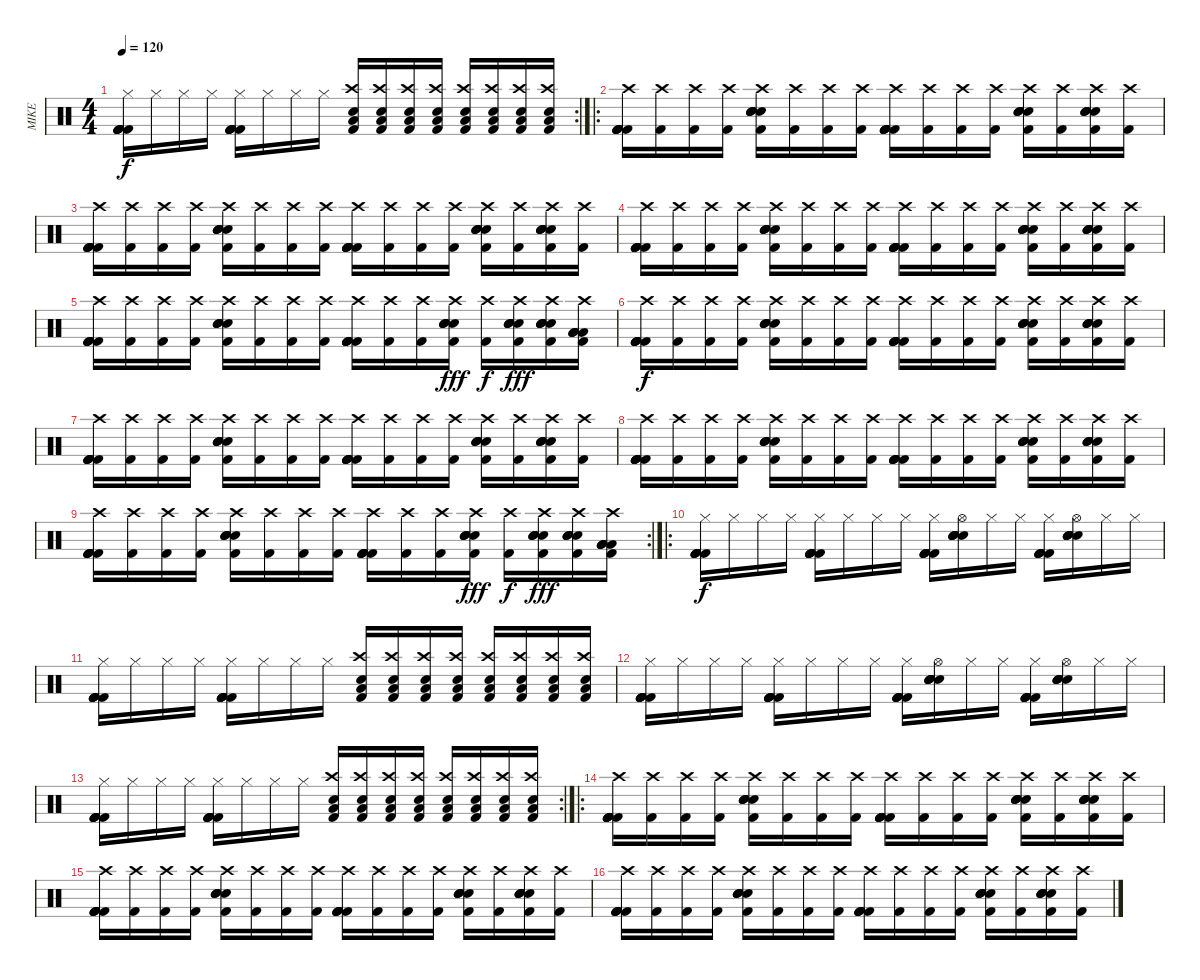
\track ("MIKE" "MIKE") {instrument percussion}
\staff {score}
\articulation defaults
\rc 2
\ts (4 4)
\tempo 120
\clef neutral
\ks c
("Kick (hit) 2" "Kick (hit) 2" "Kick (hit) 2" "Kick (hit) 2" "Kick (hit) 2" "Hi-Hat (closed)").16{dy f} "Hi-Hat (closed)".16 "Hi-Hat (closed)".16 "Hi-Hat (closed)".16 ("Kick (hit) 2" "Kick (hit) 2" "Kick (hit) 2" "Kick (hit) 2" "Kick (hit) 2" "Hi-Hat (closed)").16 "Hi-Hat (closed)".16 "Hi-Hat (closed)".16 "Hi-Hat (closed)".16 ("Crash high (hit)" "Low Floor Tom (hit)" "Electric Snare (hit)" "Kick (hit) 2").16 ("Crash high (hit)" "Low Floor Tom (hit)" "Electric Snare (hit)" "Kick (hit) 2").16 ("Crash high (hit)" "Low Floor Tom (hit)" "Electric Snare (hit)" "Kick (hit) 2").16 ("Crash high (hit)" "Low Floor Tom (hit)" "Electric Snare (hit)" "Kick (hit) 2").16 ("Crash high (hit)" "Low Floor Tom (hit)" "Electric Snare (hit)" "Kick (hit) 2").16 ("Crash high (hit)" "Low Floor Tom (hit)" "Electric Snare (hit)" "Kick (hit) 2").16 ("Crash high (hit)" "Low Floor Tom (hit)" "Electric Snare (hit)" "Kick (hit) 2").16 ("Crash high (hit)" "Low Floor Tom (hit)" "Electric Snare (hit)" "Kick (hit) 2").16 |
\ro
("Kick (hit) 2" "Kick (hit) 2" "Kick (hit) 2" "Kick (hit) 2" "Kick (hit) 2" "Crash high (hit)").16 ("Kick (hit) 2" "Crash high (hit)").16 ("Kick (hit) 2" "Crash high (hit)").16 ("Kick (hit) 2" "Crash high (hit)").16 ("Electric Snare (hit)" "Electric Snare (hit)" "Electric Snare (hit)" "Electric Snare (hit)" "Kick (hit) 2" "Crash high (hit)").16 ("Kick (hit) 2" "Crash high (hit)").16 ("Kick (hit) 2" "Crash high (hit)").16 ("Kick (hit) 2" "Crash high (hit)").16 ("Kick (hit) 2" "Kick (hit) 2" "Kick (hit) 2" "Kick (hit) 2" "Kick (hit) 2" "Crash high (hit)").16 ("Kick (hit) 2" "Crash high (hit)").16 ("Kick (hit) 2" "Crash high (hit)").16 ("Kick (hit) 2" "Crash high (hit)").16 ("Electric Snare (hit)" "Electric Snare (hit)" "Electric Snare (hit)" "Electric Snare (hit)" "Kick (hit) 2" "Crash high (hit)").16 ("Kick (hit) 2" "Crash high (hit)").16 ("Electric Snare (hit)" "Electric Snare (hit)" "Electric Snare (hit)" "Electric Snare (hit)" "Kick (hit) 2" "Crash high (hit)").16 ("Kick (hit) 2" "Crash high (hit)").16 |
("Kick (hit) 2" "Kick (hit) 2" "Kick (hit) 2" "Kick (hit) 2" "Kick (hit) 2" "Crash high (hit)").16 ("Kick (hit) 2" "Crash high (hit)").16 ("Kick (hit) 2" "Crash high (hit)").16 ("Kick (hit) 2" "Crash high (hit)").16 ("Electric Snare (hit)" "Electric Snare (hit)" "Electric Snare (hit)" "Electric Snare (hit)" "Kick (hit) 2" "Crash high (hit)").16 ("Kick (hit) 2" "Crash high (hit)").16 ("Kick (hit) 2" "Crash high (hit)").16 ("Kick (hit) 2" "Crash high (hit)").16 ("Kick (hit) 2" "Kick (hit) 2" "Kick (hit) 2" "Kick (hit) 2" "Kick (hit) 2" "Crash high (hit)").16 ("Kick (hit) 2" "Crash high (hit)").16 ("Kick (hit) 2" "Crash high (hit)").16 ("Kick (hit) 2" "Crash high (hit)").16 ("Electric Snare (hit)" "Electric Snare (hit)" "Electric Snare (hit)" "Electric Snare (hit)" "Kick (hit) 2" "Crash high (hit)").16 ("Kick (hit) 2" "Crash high (hit)").16 ("Electric Snare (hit)" "Electric Snare (hit)" "Electric Snare (hit)" "Electric Snare (hit)" "Kick (hit) 2" "Crash high (hit)").16 ("Kick (hit) 2" "Crash high (hit)").16 |
("Kick (hit) 2" "Kick (hit) 2" "Kick (hit) 2" "Kick (hit) 2" "Kick (hit) 2" "Crash high (hit)").16 ("Kick (hit) 2" "Crash high (hit)").16 ("Kick (hit) 2" "Crash high (hit)").16 ("Kick (hit) 2" "Crash high (hit)").16 ("Electric Snare (hit)" "Electric Snare (hit)" "Electric Snare (hit)" "Electric Snare (hit)" "Kick (hit) 2" "Crash high (hit)").16 ("Kick (hit) 2" "Crash high (hit)").16 ("Kick (hit) 2" "Crash high (hit)").16 ("Kick (hit) 2" "Crash high (hit)").16 ("Kick (hit) 2" "Kick (hit) 2" "Kick (hit) 2" "Kick (hit) 2" "Kick (hit) 2" "Crash high (hit)").16 ("Kick (hit) 2" "Crash high (hit)").16 ("Kick (hit) 2" "Crash high (hit)").16 ("Kick (hit) 2" "Crash high (hit)").16 ("Electric Snare (hit)" "Electric Snare (hit)" "Electric Snare (hit)" "Electric Snare (hit)" "Kick (hit) 2" "Crash high (hit)").16 ("Kick (hit) 2" "Crash high (hit)").16 ("Electric Snare (hit)" "Electric Snare (hit)" "Electric Snare (hit)" "Electric Snare (hit)" "Kick (hit) 2" "Crash high (hit)").16 ("Kick (hit) 2" "Crash high (hit)").16 |
("Kick (hit) 2" "Kick (hit) 2" "Kick (hit) 2" "Kick (hit) 2" "Kick (hit) 2" "Crash high (hit)").16 ("Kick (hit) 2" "Crash high (hit)").16 ("Kick (hit) 2" "Crash high (hit)").16 ("Kick (hit) 2" "Crash high (hit)").16 ("Electric Snare (hit)" "Electric Snare (hit)" "Electric Snare (hit)" "Electric Snare (hit)" "Kick (hit) 2" "Crash high (hit)").16 ("Kick (hit) 2" "Crash high (hit)").16 ("Kick (hit) 2" "Crash high (hit)").16 ("Kick (hit) 2" "Crash high (hit)").16 ("Kick (hit) 2" "Kick (hit) 2" "Kick (hit) 2" "Kick (hit) 2" "Kick (hit) 2" "Crash high (hit)").16 ("Kick (hit) 2" "Crash high (hit)").16 ("Kick (hit) 2" "Crash high (hit)").16 ("Electric Snare (hit)" "Electric Snare (hit)" "Electric Snare (hit)" "Electric Snare (hit)" "Kick (hit) 2" "Crash high (hit)").16{dy fff} ("Kick (hit) 2" "Crash high (hit)").16{dy f} ("Electric Snare (hit)" "Electric Snare (hit)" "Electric Snare (hit)" "Electric Snare (hit)" "Kick (hit) 2" "Crash high (hit)").16{dy fff} ("Electric Snare (hit)" "Electric Snare (hit)" "Electric Snare (hit)" "Electric Snare (hit)" "Kick (hit) 2" "Crash high (hit)").16 ("Low Floor Tom (hit)" "Low Floor Tom (hit)" "Low Floor Tom (hit)" "Low Floor Tom (hit)" "Kick (hit) 2" "Crash high (hit)").16 |
("Kick (hit) 2" "Kick (hit) 2" "Kick (hit) 2" "Kick (hit) 2" "Kick (hit) 2" "Crash high (hit)").16{dy f} ("Kick (hit) 2" "Crash high (hit)").16 ("Kick (hit) 2" "Crash high (hit)").16 ("Kick (hit) 2" "Crash high (hit)").16 ("Electric Snare (hit)" "Electric Snare (hit)" "Electric Snare (hit)" "Electric Snare (hit)" "Kick (hit) 2" "Crash high (hit)").16 ("Kick (hit) 2" "Crash high (hit)").16 ("Kick (hit) 2" "Crash high (hit)").16 ("Kick (hit) 2" "Crash high (hit)").16 ("Kick (hit) 2" "Kick (hit) 2" "Kick (hit) 2" "Kick (hit) 2" "Kick (hit) 2" "Crash high (hit)").16 ("Kick (hit) 2" "Crash high (hit)").16 ("Kick (hit) 2" "Crash high (hit)").16 ("Kick (hit) 2" "Crash high (hit)").16 ("Electric Snare (hit)" "Electric Snare (hit)" "Electric Snare (hit)" "Electric Snare (hit)" "Kick (hit) 2" "Crash high (hit)").16 ("Kick (hit) 2" "Crash high (hit)").16 ("Electric Snare (hit)" "Electric Snare (hit)" "Electric Snare (hit)" "Electric Snare (hit)" "Kick (hit) 2" "Crash high (hit)").16 ("Kick (hit) 2" "Crash high (hit)").16 |
("Kick (hit) 2" "Kick (hit) 2" "Kick (hit) 2" "Kick (hit) 2" "Kick (hit) 2" "Crash high (hit)").16 ("Kick (hit) 2" "Crash high (hit)").16 ("Kick (hit) 2" "Crash high (hit)").16 ("Kick (hit) 2" "Crash high (hit)").16 ("Electric Snare (hit)" "Electric Snare (hit)" "Electric Snare (hit)" "Electric Snare (hit)" "Kick (hit) 2" "Crash high (hit)").16 ("Kick (hit) 2" "Crash high (hit)").16 ("Kick (hit) 2" "Crash high (hit)").16 ("Kick (hit) 2" "Crash high (hit)").16 ("Kick (hit) 2" "Kick (hit) 2" "Kick (hit) 2" "Kick (hit) 2" "Kick (hit) 2" "Crash high (hit)").16 ("Kick (hit) 2" "Crash high (hit)").16 ("Kick (hit) 2" "Crash high (hit)").16 ("Kick (hit) 2" "Crash high (hit)").16 ("Electric Snare (hit)" "Electric Snare (hit)" "Electric Snare (hit)" "Electric Snare (hit)" "Kick (hit) 2" "Crash high (hit)").16 ("Kick (hit) 2" "Crash high (hit)").16 ("Electric Snare (hit)" "Electric Snare (hit)" "Electric Snare (hit)" "Electric Snare (hit)" "Kick (hit) 2" "Crash high (hit)").16 ("Kick (hit) 2" "Crash high (hit)").16 |
("Kick (hit) 2" "Kick (hit) 2" "Kick (hit) 2" "Kick (hit) 2" "Kick (hit) 2" "Crash high (hit)").16 ("Kick (hit) 2" "Crash high (hit)").16 ("Kick (hit) 2" "Crash high (hit)").16 ("Kick (hit) 2" "Crash high (hit)").16 ("Electric Snare (hit)" "Electric Snare (hit)" "Electric Snare (hit)" "Electric Snare (hit)" "Kick (hit) 2" "Crash high (hit)").16 ("Kick (hit) 2" "Crash high (hit)").16 ("Kick (hit) 2" "Crash high (hit)").16 ("Kick (hit) 2" "Crash high (hit)").16 ("Kick (hit) 2" "Kick (hit) 2" "Kick (hit) 2" "Kick (hit) 2" "Kick (hit) 2" "Crash high (hit)").16 ("Kick (hit) 2" "Crash high (hit)").16 ("Kick (hit) 2" "Crash high (hit)").16 ("Kick (hit) 2" "Crash high (hit)").16 ("Electric Snare (hit)" "Electric Snare (hit)" "Electric Snare (hit)" "Electric Snare (hit)" "Kick (hit) 2" "Crash high (hit)").16 ("Kick (hit) 2" "Crash high (hit)").16 ("Electric Snare (hit)" "Electric Snare (hit)" "Electric Snare (hit)" "Electric Snare (hit)" "Kick (hit) 2" "Crash high (hit)").16 ("Kick (hit) 2" "Crash high (hit)").16 |
\rc 2
("Kick (hit) 2" "Kick (hit) 2" "Kick (hit) 2" "Kick (hit) 2" "Kick (hit) 2" "Crash high (hit)").16 ("Kick (hit) 2" "Crash high (hit)").16 ("Kick (hit) 2" "Crash high (hit)").16 ("Kick (hit) 2" "Crash high (hit)").16 ("Electric Snare (hit)" "Electric Snare (hit)" "Electric Snare (hit)" "Electric Snare (hit)" "Kick (hit) 2" "Crash high (hit)").16 ("Kick (hit) 2" "Crash high (hit)").16 ("Kick (hit) 2" "Crash high (hit)").16 ("Kick (hit) 2" "Crash high (hit)").16 ("Kick (hit) 2" "Kick (hit) 2" "Kick (hit) 2" "Kick (hit) 2" "Kick (hit) 2" "Crash high (hit)").16 ("Kick (hit) 2" "Crash high (hit)").16 ("Kick (hit) 2" "Crash high (hit)").16 ("Electric Snare (hit)" "Electric Snare (hit)" "Electric Snare (hit)" "Electric Snare (hit)" "Kick (hit) 2" "Crash high (hit)").16{dy fff} ("Kick (hit) 2" "Crash high (hit)").16{dy f} ("Electric Snare (hit)" "Electric Snare (hit)" "Electric Snare (hit)" "Electric Snare (hit)" "Kick (hit) 2" "Crash high (hit)").16{dy fff} ("Electric Snare (hit)" "Electric Snare (hit)" "Electric Snare (hit)" "Electric Snare (hit)" "Kick (hit) 2" "Crash high (hit)").16 ("Low Floor Tom (hit)" "Low Floor Tom (hit)" "Low Floor Tom (hit)" "Low Floor Tom (hit)" "Kick (hit) 2" "Crash high (hit)").16 |
\ro
("Kick (hit) 2" "Kick (hit) 2" "Kick (hit) 2" "Kick (hit) 2" "Kick (hit) 2" "Hi-Hat (closed)").16{dy f} "Hi-Hat (closed)".16 "Hi-Hat (closed)".16 "Hi-Hat (closed)".16 ("Kick (hit) 2" "Kick (hit) 2" "Kick (hit) 2" "Kick (hit) 2" "Kick (hit) 2" "Hi-Hat (closed)").16 "Hi-Hat (closed)".16 "Hi-Hat (closed)".16 "Hi-Hat (closed)".16 ("Kick (hit) 2" "Kick (hit) 2" "Kick (hit) 2" "Kick (hit) 2" "Kick (hit) 2" "Hi-Hat (closed)").16 ("Electric Snare (hit)" "Electric Snare (hit)" "Electric Snare (hit)" "Electric Snare (hit)" "Electric Snare (hit)" "Hi-Hat (open)").16 "Hi-Hat (closed)".16 "Hi-Hat (closed)".16 ("Kick (hit) 2" "Kick (hit) 2" "Kick (hit) 2" "Kick (hit) 2" "Kick (hit) 2" "Hi-Hat (closed)").16 ("Electric Snare (hit)" "Electric Snare (hit)" "Electric Snare (hit)" "Electric Snare (hit)" "Electric Snare (hit)" "Hi-Hat (open)").16 "Hi-Hat (closed)".16 "Hi-Hat (closed)".16 |
("Kick (hit) 2" "Kick (hit) 2" "Kick (hit) 2" "Kick (hit) 2" "Kick (hit) 2" "Hi-Hat (closed)").16 "Hi-Hat (closed)".16 "Hi-Hat (closed)".16 "Hi-Hat (closed)".16 ("Kick (hit) 2" "Kick (hit) 2" "Kick (hit) 2" "Kick (hit) 2" "Kick (hit) 2" "Hi-Hat (closed)").16 "Hi-Hat (closed)".16 "Hi-Hat (closed)".16 "Hi-Hat (closed)".16 ("Crash high (hit)" "Low Floor Tom (hit)" "Electric Snare (hit)" "Kick (hit) 2").16 ("Crash high (hit)" "Low Floor Tom (hit)" "Electric Snare (hit)" "Kick (hit) 2").16 ("Crash high (hit)" "Low Floor Tom (hit)" "Electric Snare (hit)" "Kick (hit) 2").16 ("Crash high (hit)" "Low Floor Tom (hit)" "Electric Snare (hit)" "Kick (hit) 2").16 ("Crash high (hit)" "Low Floor Tom (hit)" "Electric Snare (hit)" "Kick (hit) 2").16 ("Crash high (hit)" "Low Floor Tom (hit)" "Electric Snare (hit)" "Kick (hit) 2").16 ("Crash high (hit)" "Low Floor Tom (hit)" "Electric Snare (hit)" "Kick (hit) 2").16 ("Crash high (hit)" "Low Floor Tom (hit)" "Electric Snare (hit)" "Kick (hit) 2").16 |
("Kick (hit) 2" "Kick (hit) 2" "Kick (hit) 2" "Kick (hit) 2" "Kick (hit) 2" "Hi-Hat (closed)").16 "Hi-Hat (closed)".16 "Hi-Hat (closed)".16 "Hi-Hat (closed)".16 ("Kick (hit) 2" "Kick (hit) 2" "Kick (hit) 2" "Kick (hit) 2" "Kick (hit) 2" "Hi-Hat (closed)").16 "Hi-Hat (closed)".16 "Hi-Hat (closed)".16 "Hi-Hat (closed)".16 ("Kick (hit) 2" "Kick (hit) 2" "Kick (hit) 2" "Kick (hit) 2" "Kick (hit) 2" "Hi-Hat (closed)").16 ("Electric Snare (hit)" "Electric Snare (hit)" "Electric Snare (hit)" "Electric Snare (hit)" "Electric Snare (hit)" "Hi-Hat (open)").16 "Hi-Hat (closed)".16 "Hi-Hat (closed)".16 ("Kick (hit) 2" "Kick (hit) 2" "Kick (hit) 2" "Kick (hit) 2" "Kick (hit) 2" "Hi-Hat (closed)").16 ("Electric Snare (hit)" "Electric Snare (hit)" "Electric Snare (hit)" "Electric Snare (hit)" "Electric Snare (hit)" "Hi-Hat (open)").16 "Hi-Hat (closed)".16 "Hi-Hat (closed)".16 |
\rc 2
("Kick (hit) 2" "Kick (hit) 2" "Kick (hit) 2" "Kick (hit) 2" "Kick (hit) 2" "Hi-Hat (closed)").16 "Hi-Hat (closed)".16 "Hi-Hat (closed)".16 "Hi-Hat (closed)".16 ("Kick (hit) 2" "Kick (hit) 2" "Kick (hit) 2" "Kick (hit) 2" "Kick (hit) 2" "Hi-Hat (closed)").16 "Hi-Hat (closed)".16 "Hi-Hat (closed)".16 "Hi-Hat (closed)".16 ("Crash high (hit)" "Low Floor Tom (hit)" "Electric Snare (hit)" "Kick (hit) 2").16 ("Crash high (hit)" "Low Floor Tom (hit)" "Electric Snare (hit)" "Kick (hit) 2").16 ("Crash high (hit)" "Low Floor Tom (hit)" "Electric Snare (hit)" "Kick (hit) 2").16 ("Crash high (hit)" "Low Floor Tom (hit)" "Electric Snare (hit)" "Kick (hit) 2").16 ("Crash high (hit)" "Low Floor Tom (hit)" "Electric Snare (hit)" "Kick (hit) 2").16 ("Crash high (hit)" "Low Floor Tom (hit)" "Electric Snare (hit)" "Kick (hit) 2").16 ("Crash high (hit)" "Low Floor Tom (hit)" "Electric Snare (hit)" "Kick (hit) 2").16 ("Crash high (hit)" "Low Floor Tom (hit)" "Electric Snare (hit)" "Kick (hit) 2").16 |
\ro
("Kick (hit) 2" "Kick (hit) 2" "Kick (hit) 2" "Kick (hit) 2" "Kick (hit) 2" "Crash high (hit)").16 ("Kick (hit) 2" "Crash high (hit)").16 ("Kick (hit) 2" "Crash high (hit)").16 ("Kick (hit) 2" "Crash high (hit)").16 ("Electric Snare (hit)" "Electric Snare (hit)" "Electric Snare (hit)" "Electric Snare (hit)" "Kick (hit) 2" "Crash high (hit)").16 ("Kick (hit) 2" "Crash high (hit)").16 ("Kick (hit) 2" "Crash high (hit)").16 ("Kick (hit) 2" "Crash high (hit)").16 ("Kick (hit) 2" "Kick (hit) 2" "Kick (hit) 2" "Kick (hit) 2" "Kick (hit) 2" "Crash high (hit)").16 ("Kick (hit) 2" "Crash high (hit)").16 ("Kick (hit) 2" "Crash high (hit)").16 ("Kick (hit) 2" "Crash high (hit)").16 ("Electric Snare (hit)" "Electric Snare (hit)" "Electric Snare (hit)" "Electric Snare (hit)" "Kick (hit) 2" "Crash high (hit)").16 ("Kick (hit) 2" "Crash high (hit)").16 ("Electric Snare (hit)" "Electric Snare (hit)" "Electric Snare (hit)" "Electric Snare (hit)" "Kick (hit) 2" "Crash high (hit)").16 ("Kick (hit) 2" "Crash high (hit)").16 |
("Kick (hit) 2" "Kick (hit) 2" "Kick (hit) 2" "Kick (hit) 2" "Kick (hit) 2" "Crash high (hit)").16 ("Kick (hit) 2" "Crash high (hit)").16 ("Kick (hit) 2" "Crash high (hit)").16 ("Kick (hit) 2" "Crash high (hit)").16 ("Electric Snare (hit)" "Electric Snare (hit)" "Electric Snare (hit)" "Electric Snare (hit)" "Kick (hit) 2" "Crash high (hit)").16 ("Kick (hit) 2" "Crash high (hit)").16 ("Kick (hit) 2" "Crash high (hit)").16 ("Kick (hit) 2" "Crash high (hit)").16 ("Kick (hit) 2" "Kick (hit) 2" "Kick (hit) 2" "Kick (hit) 2" "Kick (hit) 2" "Crash high (hit)").16 ("Kick (hit) 2" "Crash high (hit)").16 ("Kick (hit) 2" "Crash high (hit)").16 ("Kick (hit) 2" "Crash high (hit)").16 ("Electric Snare (hit)" "Electric Snare (hit)" "Electric Snare (hit)" "Electric Snare (hit)" "Kick (hit) 2" "Crash high (hit)").16 ("Kick (hit) 2" "Crash high (hit)").16 ("Electric Snare (hit)" "Electric Snare (hit)" "Electric Snare (hit)" "Electric Snare (hit)" "Kick (hit) 2" "Crash high (hit)").16 ("Kick (hit) 2" "Crash high (hit)").16 |
("Kick (hit) 2" "Kick (hit) 2" "Kick (hit) 2" "Kick (hit) 2" "Kick (hit) 2" "Crash high (hit)").16 ("Kick (hit) 2" "Crash high (hit)").16 ("Kick (hit) 2" "Crash high (hit)").16 ("Kick (hit) 2" "Crash high (hit)").16 ("Electric Snare (hit)" "Electric Snare (hit)" "Electric Snare (hit)" "Electric Snare (hit)" "Kick (hit) 2" "Crash high (hit)").16 ("Kick (hit) 2" "Crash high (hit)").16 ("Kick (hit) 2" "Crash high (hit)").16 ("Kick (hit) 2" "Crash high (hit)").16 ("Kick (hit) 2" "Kick (hit) 2" "Kick (hit) 2" "Kick (hit) 2" "Kick (hit) 2" "Crash high (hit)").16 ("Kick (hit) 2" "Crash high (hit)").16 ("Kick (hit) 2" "Crash high (hit)").16 ("Kick (hit) 2" "Crash high (hit)").16 ("Electric Snare (hit)" "Electric Snare (hit)" "Electric Snare (hit)" "Electric Snare (hit)" "Kick (hit) 2" "Crash high (hit)").16 ("Kick (hit) 2" "Crash high (hit)").16 ("Electric Snare (hit)" "Electric Snare (hit)" "Electric Snare (hit)" "Electric Snare (hit)" "Kick (hit) 2" "Crash high (hit)").16 ("Kick (hit) 2" "Crash high (hit)").16
